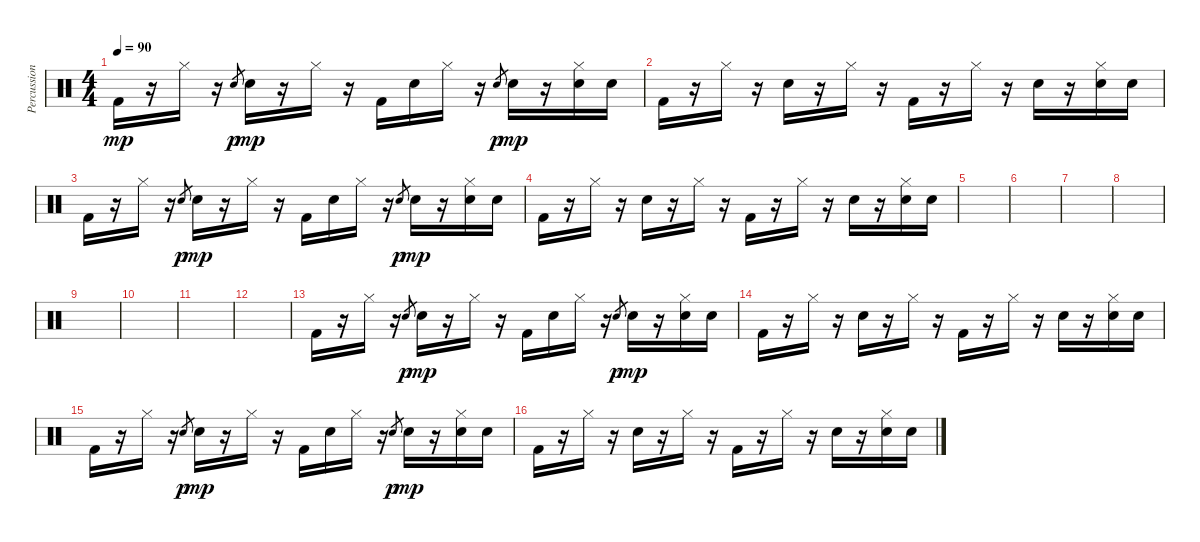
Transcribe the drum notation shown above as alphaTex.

\track ("Percussion" "Percussion") {instrument percussion}
\staff {score}
\articulation defaults
\ts (4 4)
\tempo 90
\clef neutral
\ks c "Kick (hit) 2".16{dy mp}
r.16 "Hi-Hat (closed)".16 r.16 "Snare (hit) 2".8{gr dy p} "Snare (hit) 2".16{dy mp} r.16 "Hi-Hat (closed)".16 r.16 "Kick (hit) 2".16 "Snare (hit) 2".16 "Hi-Hat (closed)".16 r.16 "Snare (hit) 2".8{gr dy p} "Snare (hit) 2".16{dy mp} r.16 ("Hi-Hat (closed)" "Snare (hit) 2").16 "Snare (hit) 2".16 |
"Kick (hit) 2".16 r.16 "Hi-Hat (closed)".16 r.16 "Snare (hit) 2".16 r.16 "Hi-Hat (closed)".16 r.16 "Kick (hit) 2".16 r.16 "Hi-Hat (closed)".16 r.16 "Snare (hit) 2".16 r.16 ("Hi-Hat (closed)" "Snare (hit) 2").16 "Snare (hit) 2".16 |
"Kick (hit) 2".16 r.16 "Hi-Hat (closed)".16 r.16 "Snare (hit) 2".8{gr dy p} "Snare (hit) 2".16{dy mp} r.16 "Hi-Hat (closed)".16 r.16 "Kick (hit) 2".16 "Snare (hit) 2".16 "Hi-Hat (closed)".16 r.16 "Snare (hit) 2".8{gr dy p} "Snare (hit) 2".16{dy mp} r.16 ("Hi-Hat (closed)" "Snare (hit) 2").16 "Snare (hit) 2".16 |
"Kick (hit) 2".16 r.16 "Hi-Hat (closed)".16 r.16 "Snare (hit) 2".16 r.16 "Hi-Hat (closed)".16 r.16 "Kick (hit) 2".16 r.16 "Hi-Hat (closed)".16 r.16 "Snare (hit) 2".16 r.16 ("Hi-Hat (closed)" "Snare (hit) 2").16 "Snare (hit) 2".16 |
|
|
|
|
|
|
|
|
"Kick (hit) 2".16 r.16 "Hi-Hat (closed)".16 r.16 "Snare (hit) 2".8{gr dy p} "Snare (hit) 2".16{dy mp} r.16 "Hi-Hat (closed)".16 r.16 "Kick (hit) 2".16 "Snare (hit) 2".16 "Hi-Hat (closed)".16 r.16 "Snare (hit) 2".8{gr dy p} "Snare (hit) 2".16{dy mp} r.16 ("Hi-Hat (closed)" "Snare (hit) 2").16 "Snare (hit) 2".16 |
"Kick (hit) 2".16 r.16 "Hi-Hat (closed)".16 r.16 "Snare (hit) 2".16 r.16 "Hi-Hat (closed)".16 r.16 "Kick (hit) 2".16 r.16 "Hi-Hat (closed)".16 r.16 "Snare (hit) 2".16 r.16 ("Hi-Hat (closed)" "Snare (hit) 2").16 "Snare (hit) 2".16 |
"Kick (hit) 2".16 r.16 "Hi-Hat (closed)".16 r.16 "Snare (hit) 2".8{gr dy p} "Snare (hit) 2".16{dy mp} r.16 "Hi-Hat (closed)".16 r.16 "Kick (hit) 2".16 "Snare (hit) 2".16 "Hi-Hat (closed)".16 r.16 "Snare (hit) 2".8{gr dy p} "Snare (hit) 2".16{dy mp} r.16 ("Hi-Hat (closed)" "Snare (hit) 2").16 "Snare (hit) 2".16 |
"Kick (hit) 2".16 r.16 "Hi-Hat (closed)".16 r.16 "Snare (hit) 2".16 r.16 "Hi-Hat (closed)".16 r.16 "Kick (hit) 2".16 r.16 "Hi-Hat (closed)".16 r.16 "Snare (hit) 2".16 r.16 ("Hi-Hat (closed)" "Snare (hit) 2").16 "Snare (hit) 2".16
